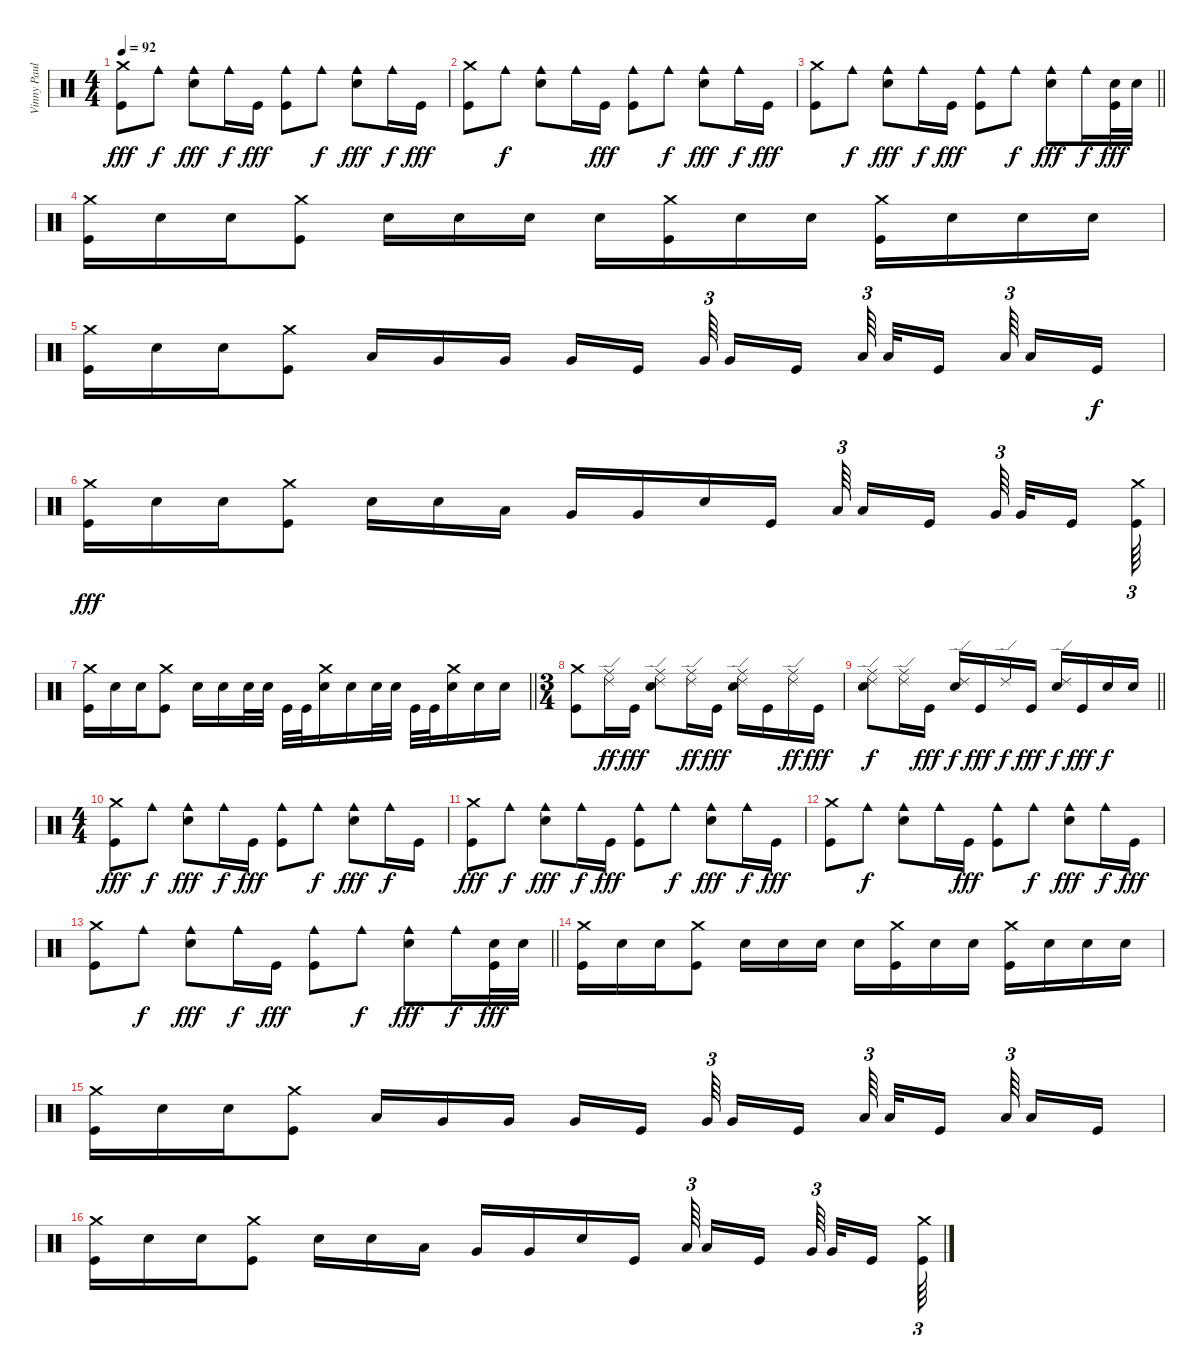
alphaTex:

\track ("Vinny Paul" "Vinny Paul") {instrument percussion}
\staff {score}
\articulation defaults
\ts (4 4)
\tempo 92
\clef neutral
\ks c
("Crash medium (hit)" "Kick (hit)").8{dy fff} "Cowbell medium (hit)".8{dy f} ("Cowbell medium (hit)" "Electric Snare (hit)").8{dy fff} "Cowbell medium (hit)".16{dy f} "Kick (hit)".16{dy fff} ("Cowbell medium (hit)" "Kick (hit)").8 "Cowbell medium (hit)".8{dy f} ("Cowbell medium (hit)" "Electric Snare (hit)").8{dy fff} "Cowbell medium (hit)".16{dy f} "Kick (hit)".16{dy fff} |
("Crash medium (hit)" "Kick (hit)").8 "Cowbell medium (hit)".8{dy f} ("Cowbell medium (hit)" "Electric Snare (hit)").8 "Cowbell medium (hit)".16 "Kick (hit)".16{dy fff} ("Cowbell medium (hit)" "Kick (hit)").8 "Cowbell medium (hit)".8{dy f} ("Cowbell medium (hit)" "Electric Snare (hit)").8{dy fff} "Cowbell medium (hit)".16{dy f} "Kick (hit)".16{dy fff} |
\barLineRight lightlight
("Crash medium (hit)" "Kick (hit)").8 "Cowbell medium (hit)".8{dy f} ("Cowbell medium (hit)" "Electric Snare (hit)").8{dy fff} "Cowbell medium (hit)".16{dy f} "Kick (hit)".16{dy fff} ("Cowbell medium (hit)" "Kick (hit)").8 "Cowbell medium (hit)".8{dy f} ("Cowbell medium (hit)" "Electric Snare (hit)").8{dy fff} "Cowbell medium (hit)".16{dy f} ("Electric Snare (hit)" "Kick (hit)").32{dy fff} "Electric Snare (hit)".32 |
\section ("" "")
("Crash medium (hit)" "Kick (hit)").16 "Electric Snare (hit)".16 "Electric Snare (hit)".16 ("Crash medium (hit)" "Kick (hit)").8 "Electric Snare (hit)".16 "Electric Snare (hit)".16 "Electric Snare (hit)".16 "Electric Snare (hit)".16 ("Crash medium (hit)" "Kick (hit)").16 "Electric Snare (hit)".16 "Electric Snare (hit)".16 ("Crash medium (hit)" "Kick (hit)").16 "Electric Snare (hit)".16 "Electric Snare (hit)".16 "Electric Snare (hit)".16 |
("Crash medium (hit)" "Kick (hit)").16 "Electric Snare (hit)".16 "Electric Snare (hit)".16 ("Crash medium (hit)" "Kick (hit)").8 "Low Tom (hit)".16 "Very Low Tom (hit)".16 "Very Low Tom (hit)".16 "Very Low Tom (hit)".16 "Kick (hit)".16{beam splitsecondary} "Very Low Tom (hit)".64{tu (3 2) beam splitsecondary} "Very Low Tom (hit)".16 "Kick (hit)".16 "Low Floor Tom (hit)".64{tu (3 2) beam splitsecondary} "Low Floor Tom (hit)".32 "Kick (hit)".16{beam splitsecondary} "Low Floor Tom (hit)".64{tu (3 2) beam splitsecondary} "Low Floor Tom (hit)".16 "Kick (hit)".16{dy f} |
("Crash medium (hit)" "Kick (hit)").16{dy fff} "Electric Snare (hit)".16 "Electric Snare (hit)".16 ("Crash medium (hit)" "Kick (hit)").8 "Electric Snare (hit)".16 "Electric Snare (hit)".16 "Low Tom (hit)".16 "Very Low Tom (hit)".16 "Very Low Tom (hit)".16 "Electric Snare (hit)".16 "Kick (hit)".16 "Low Tom (hit)".64{tu (3 2) beam splitsecondary} "Low Tom (hit)".16 "Kick (hit)".16{beam splitsecondary} "Very Low Tom (hit)".64{tu (3 2) beam splitsecondary} "Very Low Tom (hit)".32 "Kick (hit)".16{beam splitsecondary} ("Crash medium (hit)" "Kick (hit)").64{tu (3 2)} |
\barLineRight lightlight
("Crash medium (hit)" "Kick (hit)").16 "Electric Snare (hit)".16 "Electric Snare (hit)".16 ("Crash medium (hit)" "Kick (hit)").8 "Electric Snare (hit)".16 "Electric Snare (hit)".16 "Electric Snare (hit)".32 "Electric Snare (hit)".32 "Kick (hit)".32 "Kick (hit)".32 ("Crash medium (hit)" "Electric Snare (hit)").16 "Electric Snare (hit)".16 "Electric Snare (hit)".32 "Electric Snare (hit)".32 "Kick (hit)".32 "Kick (hit)".32 ("Crash medium (hit)" "Electric Snare (hit)").16 "Electric Snare (hit)".16 "Electric Snare (hit)".16 |
\ts (3 4)
\section ("" "")
("Crash medium (hit)" "Kick (hit)").8 ("Ride (middle)" "Ride (edge) 2").16{dy ff} "Kick (hit)".16{dy fff} ("Ride (middle)" "Ride (edge) 2" "Electric Snare (hit)").8 ("Ride (middle)" "Ride (edge) 2").16{dy ff} "Kick (hit)".16{dy fff} ("Ride (middle)" "Ride (edge) 2" "Electric Snare (hit)").16 "Kick (hit)".16 ("Ride (middle)" "Ride (edge) 2").16{dy ff} "Kick (hit)".16{dy fff} |
\barLineRight lightlight
("Ride (middle)" "Ride (edge) 2" "Electric Snare (hit)").8{dy f} ("Ride (middle)" "Ride (edge) 2").16 "Kick (hit)".16{dy fff} ("Ride (edge) 2" "Electric Snare (hit)").16{dy f} "Kick (hit)".16{dy fff} "Ride (edge) 2".16{dy f} "Kick (hit)".16{dy fff} ("Ride (edge) 2" "Electric Snare (hit)").16{dy f} "Kick (hit)".16{dy fff} "Electric Snare (hit)".16{dy f} "Electric Snare (hit)".16 |
\ts (4 4)
\section ("" "")
("Crash medium (hit)" "Kick (hit)").8{dy fff} "Cowbell medium (hit)".8{dy f} ("Cowbell medium (hit)" "Electric Snare (hit)").8{dy fff} "Cowbell medium (hit)".16{dy f} "Kick (hit)".16{dy fff} ("Cowbell medium (hit)" "Kick (hit)").8 "Cowbell medium (hit)".8{dy f} ("Cowbell medium (hit)" "Electric Snare (hit)").8{dy fff} "Cowbell medium (hit)".16{dy f} "Kick (hit)".16 |
("Crash medium (hit)" "Kick (hit)").8{dy fff} "Cowbell medium (hit)".8{dy f} ("Cowbell medium (hit)" "Electric Snare (hit)").8{dy fff} "Cowbell medium (hit)".16{dy f} "Kick (hit)".16{dy fff} ("Cowbell medium (hit)" "Kick (hit)").8 "Cowbell medium (hit)".8{dy f} ("Cowbell medium (hit)" "Electric Snare (hit)").8{dy fff} "Cowbell medium (hit)".16{dy f} "Kick (hit)".16{dy fff} |
("Crash medium (hit)" "Kick (hit)").8 "Cowbell medium (hit)".8{dy f} ("Cowbell medium (hit)" "Electric Snare (hit)").8 "Cowbell medium (hit)".16 "Kick (hit)".16{dy fff} ("Cowbell medium (hit)" "Kick (hit)").8 "Cowbell medium (hit)".8{dy f} ("Cowbell medium (hit)" "Electric Snare (hit)").8{dy fff} "Cowbell medium (hit)".16{dy f} "Kick (hit)".16{dy fff} |
\barLineRight lightlight
("Crash medium (hit)" "Kick (hit)").8 "Cowbell medium (hit)".8{dy f} ("Cowbell medium (hit)" "Electric Snare (hit)").8{dy fff} "Cowbell medium (hit)".16{dy f} "Kick (hit)".16{dy fff} ("Cowbell medium (hit)" "Kick (hit)").8 "Cowbell medium (hit)".8{dy f} ("Cowbell medium (hit)" "Electric Snare (hit)").8{dy fff} "Cowbell medium (hit)".16{dy f} ("Electric Snare (hit)" "Kick (hit)").32{dy fff} "Electric Snare (hit)".32 |
\section ("" "")
("Crash medium (hit)" "Kick (hit)").16 "Electric Snare (hit)".16 "Electric Snare (hit)".16 ("Crash medium (hit)" "Kick (hit)").8 "Electric Snare (hit)".16 "Electric Snare (hit)".16 "Electric Snare (hit)".16 "Electric Snare (hit)".16 ("Crash medium (hit)" "Kick (hit)").16 "Electric Snare (hit)".16 "Electric Snare (hit)".16 ("Crash medium (hit)" "Kick (hit)").16 "Electric Snare (hit)".16 "Electric Snare (hit)".16 "Electric Snare (hit)".16 |
("Crash medium (hit)" "Kick (hit)").16 "Electric Snare (hit)".16 "Electric Snare (hit)".16 ("Crash medium (hit)" "Kick (hit)").8 "Low Tom (hit)".16 "Very Low Tom (hit)".16 "Very Low Tom (hit)".16 "Very Low Tom (hit)".16 "Kick (hit)".16{beam splitsecondary} "Very Low Tom (hit)".64{tu (3 2) beam splitsecondary} "Very Low Tom (hit)".16 "Kick (hit)".16 "Low Floor Tom (hit)".64{tu (3 2) beam splitsecondary} "Low Floor Tom (hit)".32 "Kick (hit)".16{beam splitsecondary} "Low Floor Tom (hit)".64{tu (3 2) beam splitsecondary} "Low Floor Tom (hit)".16 "Kick (hit)".16 |
("Crash medium (hit)" "Kick (hit)").16 "Electric Snare (hit)".16 "Electric Snare (hit)".16 ("Crash medium (hit)" "Kick (hit)").8 "Electric Snare (hit)".16 "Electric Snare (hit)".16 "Low Tom (hit)".16 "Very Low Tom (hit)".16 "Very Low Tom (hit)".16 "Electric Snare (hit)".16 "Kick (hit)".16 "Low Tom (hit)".64{tu (3 2) beam splitsecondary} "Low Tom (hit)".16 "Kick (hit)".16{beam splitsecondary} "Very Low Tom (hit)".64{tu (3 2) beam splitsecondary} "Very Low Tom (hit)".32 "Kick (hit)".16{beam splitsecondary} ("Crash medium (hit)" "Kick (hit)").64{tu (3 2)}
